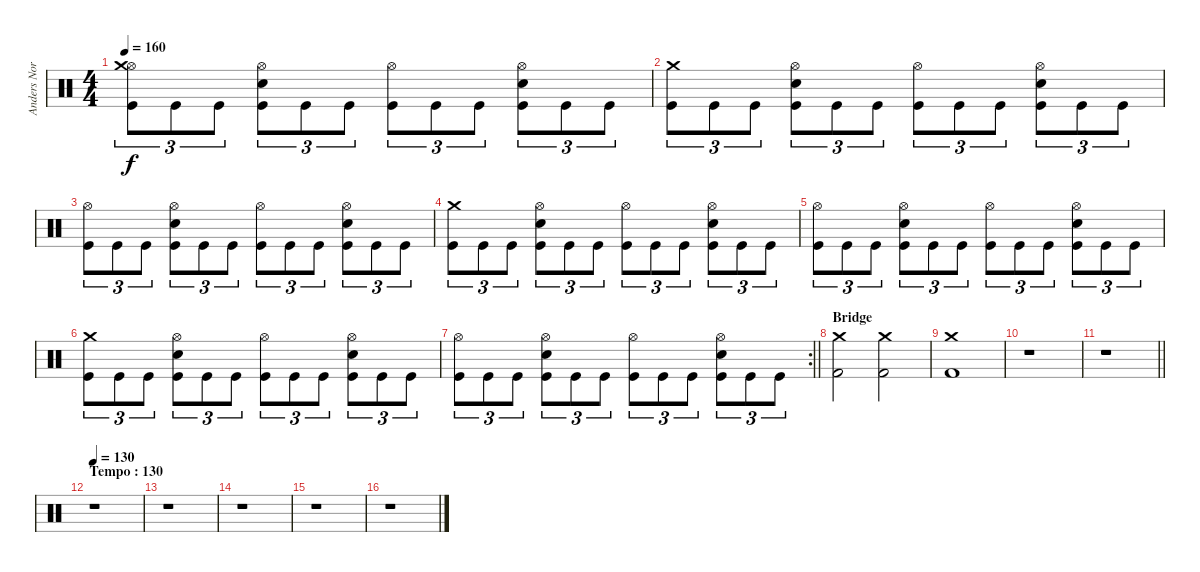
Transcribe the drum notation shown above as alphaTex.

\track ("Anders Nordin" "Anders Nor") {instrument percussion}
\staff {score}
\articulation defaults
\ts (4 4)
\tempo 160
\clef neutral
\ks c
("Hi-Hat (open)" "Crash medium (hit)" "Kick (hit)").8{tu (3 2) dy f} "Kick (hit)".8{tu (3 2)} "Kick (hit)".8{tu (3 2)} ("Hi-Hat (open)" "Electric Snare (hit)" "Kick (hit)").8{tu (3 2)} "Kick (hit)".8{tu (3 2)} "Kick (hit)".8{tu (3 2)} ("Hi-Hat (open)" "Kick (hit)").8{tu (3 2)} "Kick (hit)".8{tu (3 2)} "Kick (hit)".8{tu (3 2)} ("Hi-Hat (open)" "Electric Snare (hit)" "Kick (hit)").8{tu (3 2)} "Kick (hit)".8{tu (3 2)} "Kick (hit)".8{tu (3 2)} |
("Crash medium (hit)" "Kick (hit)").8{tu (3 2)} "Kick (hit)".8{tu (3 2)} "Kick (hit)".8{tu (3 2)} ("Hi-Hat (open)" "Electric Snare (hit)" "Kick (hit)").8{tu (3 2)} "Kick (hit)".8{tu (3 2)} "Kick (hit)".8{tu (3 2)} ("Hi-Hat (open)" "Kick (hit)").8{tu (3 2)} "Kick (hit)".8{tu (3 2)} "Kick (hit)".8{tu (3 2)} ("Hi-Hat (open)" "Electric Snare (hit)" "Kick (hit)").8{tu (3 2)} "Kick (hit)".8{tu (3 2)} "Kick (hit)".8{tu (3 2)} |
("Hi-Hat (open)" "Kick (hit)").8{tu (3 2)} "Kick (hit)".8{tu (3 2)} "Kick (hit)".8{tu (3 2)} ("Hi-Hat (open)" "Electric Snare (hit)" "Kick (hit)").8{tu (3 2)} "Kick (hit)".8{tu (3 2)} "Kick (hit)".8{tu (3 2)} ("Hi-Hat (open)" "Kick (hit)").8{tu (3 2)} "Kick (hit)".8{tu (3 2)} "Kick (hit)".8{tu (3 2)} ("Hi-Hat (open)" "Electric Snare (hit)" "Kick (hit)").8{tu (3 2)} "Kick (hit)".8{tu (3 2)} "Kick (hit)".8{tu (3 2)} |
("Crash medium (hit)" "Kick (hit)").8{tu (3 2)} "Kick (hit)".8{tu (3 2)} "Kick (hit)".8{tu (3 2)} ("Hi-Hat (open)" "Electric Snare (hit)" "Kick (hit)").8{tu (3 2)} "Kick (hit)".8{tu (3 2)} "Kick (hit)".8{tu (3 2)} ("Hi-Hat (open)" "Kick (hit)").8{tu (3 2)} "Kick (hit)".8{tu (3 2)} "Kick (hit)".8{tu (3 2)} ("Hi-Hat (open)" "Electric Snare (hit)" "Kick (hit)").8{tu (3 2)} "Kick (hit)".8{tu (3 2)} "Kick (hit)".8{tu (3 2)} |
("Hi-Hat (open)" "Kick (hit)").8{tu (3 2)} "Kick (hit)".8{tu (3 2)} "Kick (hit)".8{tu (3 2)} ("Hi-Hat (open)" "Electric Snare (hit)" "Kick (hit)").8{tu (3 2)} "Kick (hit)".8{tu (3 2)} "Kick (hit)".8{tu (3 2)} ("Hi-Hat (open)" "Kick (hit)").8{tu (3 2)} "Kick (hit)".8{tu (3 2)} "Kick (hit)".8{tu (3 2)} ("Hi-Hat (open)" "Electric Snare (hit)" "Kick (hit)").8{tu (3 2)} "Kick (hit)".8{tu (3 2)} "Kick (hit)".8{tu (3 2)} |
("Crash medium (hit)" "Kick (hit)").8{tu (3 2)} "Kick (hit)".8{tu (3 2)} "Kick (hit)".8{tu (3 2)} ("Hi-Hat (open)" "Electric Snare (hit)" "Kick (hit)").8{tu (3 2)} "Kick (hit)".8{tu (3 2)} "Kick (hit)".8{tu (3 2)} ("Hi-Hat (open)" "Kick (hit)").8{tu (3 2)} "Kick (hit)".8{tu (3 2)} "Kick (hit)".8{tu (3 2)} ("Hi-Hat (open)" "Electric Snare (hit)" "Kick (hit)").8{tu (3 2)} "Kick (hit)".8{tu (3 2)} "Kick (hit)".8{tu (3 2)} |
\rc 2
\barLineRight lightlight
("Hi-Hat (open)" "Kick (hit)").8{tu (3 2)} "Kick (hit)".8{tu (3 2)} "Kick (hit)".8{tu (3 2)} ("Hi-Hat (open)" "Electric Snare (hit)" "Kick (hit)").8{tu (3 2)} "Kick (hit)".8{tu (3 2)} "Kick (hit)".8{tu (3 2)} ("Hi-Hat (open)" "Kick (hit)").8{tu (3 2)} "Kick (hit)".8{tu (3 2)} "Kick (hit)".8{tu (3 2)} ("Hi-Hat (open)" "Electric Snare (hit)" "Kick (hit)").8{tu (3 2)} "Kick (hit)".8{tu (3 2)} "Kick (hit)".8{tu (3 2)} |
\section ("" "Bridge")
("Crash medium (hit)" "Kick (hit) 2").2 ("Crash medium (hit)" "Kick (hit) 2").2 |
("Crash medium (hit)" "Kick (hit) 2").1 |
r.1 |
\barLineRight lightlight
r.1 |
\section ("" "Tempo : 130")
\tempo 130
r.1 |
r.1 |
r.1 |
r.1 |
r.1
